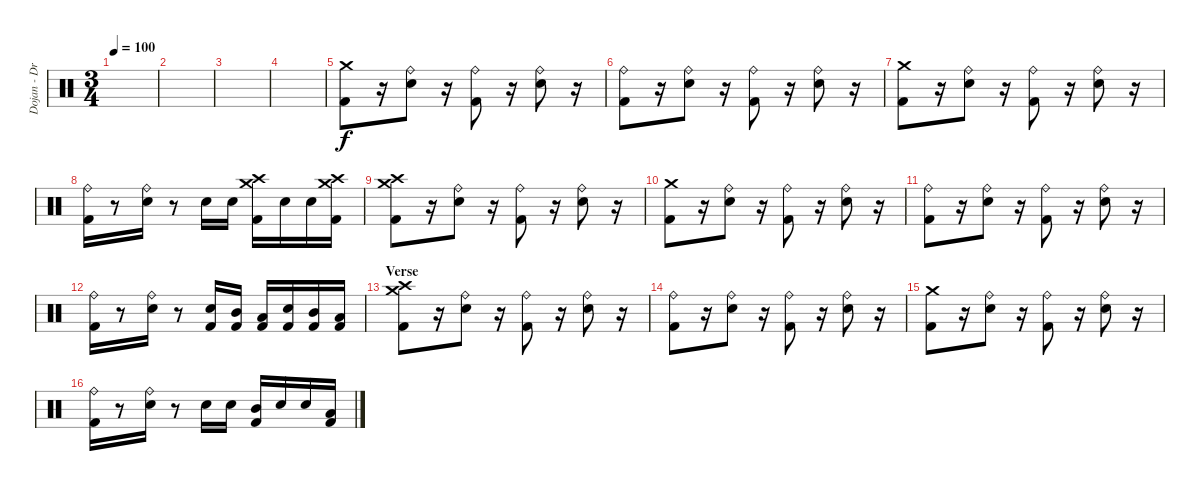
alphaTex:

\track ("Dojan - Drums" "Dojan - Dr") {instrument percussion}
\staff {score}
\articulation defaults
\ts (3 4)
\tempo 100
\clef neutral
\ks c
|
|
|
|
("Crash medium (hit)" "Kick (hit) 2").8 r.16 ("Ride (bell)" "Snare (hit) 2").8 r.16 ("Ride (bell)" "Kick (hit) 2").8 r.16 ("Ride (bell)" "Snare (hit) 2").8 r.16 |
("Ride (bell)" "Kick (hit) 2").8 r.16 ("Ride (bell)" "Snare (hit) 2").8 r.16 ("Ride (bell)" "Kick (hit) 2").8 r.16 ("Ride (bell)" "Snare (hit) 2").8 r.16 |
("Crash medium (hit)" "Kick (hit) 2").8 r.16 ("Ride (bell)" "Snare (hit) 2").8 r.16 ("Ride (bell)" "Kick (hit) 2").8 r.16 ("Ride (bell)" "Snare (hit) 2").8 r.16 |
("Ride (bell)" "Kick (hit) 2").16 r.8 ("Ride (bell)" "Snare (hit) 2").16 r.8 "Snare (hit) 2".16 "Snare (hit) 2".16 ("Crash high (hit)" "Crash medium (hit)" "Kick (hit) 2").16 "Snare (hit) 2".16 "Snare (hit) 2".16 ("Crash high (hit)" "Crash medium (hit)" "Kick (hit) 2").16 |
("Crash high (hit)" "Crash medium (hit)" "Kick (hit) 2").8 r.16 ("Ride (bell)" "Snare (hit) 2").8 r.16 ("Ride (bell)" "Kick (hit) 2").8 r.16 ("Ride (bell)" "Snare (hit) 2").8 r.16 |
("Crash medium (hit)" "Kick (hit) 2").8 r.16 ("Ride (bell)" "Snare (hit) 2").8 r.16 ("Ride (bell)" "Kick (hit) 2").8 r.16 ("Ride (bell)" "Snare (hit) 2").8 r.16 |
("Ride (bell)" "Kick (hit) 2").8 r.16 ("Ride (bell)" "Snare (hit) 2").8 r.16 ("Ride (bell)" "Kick (hit) 2").8 r.16 ("Ride (bell)" "Snare (hit) 2").8 r.16 |
("Ride (bell)" "Kick (hit) 2").16 r.8 ("Ride (bell)" "Snare (hit) 2").16 r.8 ("Snare (hit) 2" "Kick (hit) 2").16 ("Mid Tom (hit)" "Kick (hit) 2").16 ("Low Tom (hit)" "Kick (hit) 2").16 ("Snare (hit) 2" "Kick (hit) 2").16 ("Mid Tom (hit)" "Kick (hit) 2").16 ("Low Tom (hit)" "Kick (hit) 2").16 |
\section ("" "Verse")
("Crash high (hit)" "Crash medium (hit)" "Kick (hit) 2").8 r.16 ("Ride (bell)" "Snare (hit) 2").8 r.16 ("Ride (bell)" "Kick (hit) 2").8 r.16 ("Ride (bell)" "Snare (hit) 2").8 r.16 |
("Ride (bell)" "Kick (hit) 2").8 r.16 ("Ride (bell)" "Snare (hit) 2").8 r.16 ("Ride (bell)" "Kick (hit) 2").8 r.16 ("Ride (bell)" "Snare (hit) 2").8 r.16 |
("Crash medium (hit)" "Kick (hit) 2").8 r.16 ("Ride (bell)" "Snare (hit) 2").8 r.16 ("Ride (bell)" "Kick (hit) 2").8 r.16 ("Ride (bell)" "Snare (hit) 2").8 r.16 |
("Ride (bell)" "Kick (hit) 2").16 r.8 ("Ride (bell)" "Snare (hit) 2").16 r.8 "Snare (hit) 2".16 "Snare (hit) 2".16 ("Mid Tom (hit)" "Kick (hit) 2").16 "Snare (hit) 2".16 "Snare (hit) 2".16 ("Low Tom (hit)" "Kick (hit) 2").16
